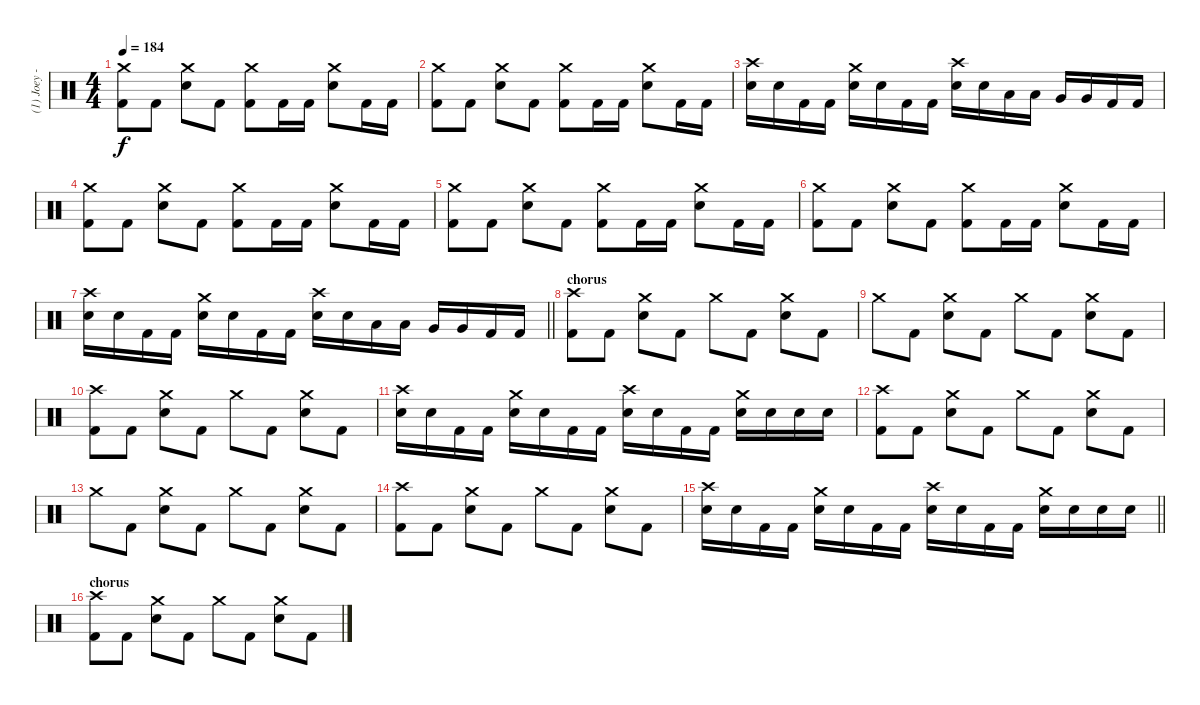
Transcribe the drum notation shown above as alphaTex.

\track ("(1) Joey - drums" "(1) Joey -") {instrument percussion}
\staff {score}
\articulation defaults
\ts (4 4)
\tempo 184
\clef neutral
\ks c
("Crash medium (hit)" "Kick (hit) 2").8{dy f} "Kick (hit) 2".8 ("Crash medium (hit)" "Electric Snare (hit)").8 "Kick (hit) 2".8 ("Crash medium (hit)" "Kick (hit) 2").8 "Kick (hit) 2".16 "Kick (hit) 2".16 ("Crash medium (hit)" "Electric Snare (hit)").8 "Kick (hit) 2".16 "Kick (hit) 2".16 |
("Crash medium (hit)" "Kick (hit) 2").8 "Kick (hit) 2".8 ("Crash medium (hit)" "Electric Snare (hit)").8 "Kick (hit) 2".8 ("Crash medium (hit)" "Kick (hit) 2").8 "Kick (hit) 2".16 "Kick (hit) 2".16 ("Crash medium (hit)" "Electric Snare (hit)").8 "Kick (hit) 2".16 "Kick (hit) 2".16 |
("Crash high (hit)" "Electric Snare (hit)").16 "Electric Snare (hit)".16 "Kick (hit) 2".16 "Kick (hit) 2".16 ("Crash medium (hit)" "Electric Snare (hit)").16 "Electric Snare (hit)".16 "Kick (hit) 2".16 "Kick (hit) 2".16 ("Crash high (hit)" "Electric Snare (hit)").16 "Electric Snare (hit)".16 "Low Tom (hit)".16 "Low Tom (hit)".16 "Very Low Tom (hit)".16 "Very Low Tom (hit)".16 "Kick (hit) 2".16 "Kick (hit) 2".16 |
("Crash medium (hit)" "Kick (hit) 2").8 "Kick (hit) 2".8 ("Crash medium (hit)" "Electric Snare (hit)").8 "Kick (hit) 2".8 ("Crash medium (hit)" "Kick (hit) 2").8 "Kick (hit) 2".16 "Kick (hit) 2".16 ("Crash medium (hit)" "Electric Snare (hit)").8 "Kick (hit) 2".16 "Kick (hit) 2".16 |
("Crash medium (hit)" "Kick (hit) 2").8 "Kick (hit) 2".8 ("Crash medium (hit)" "Electric Snare (hit)").8 "Kick (hit) 2".8 ("Crash medium (hit)" "Kick (hit) 2").8 "Kick (hit) 2".16 "Kick (hit) 2".16 ("Crash medium (hit)" "Electric Snare (hit)").8 "Kick (hit) 2".16 "Kick (hit) 2".16 |
("Crash medium (hit)" "Kick (hit) 2").8 "Kick (hit) 2".8 ("Crash medium (hit)" "Electric Snare (hit)").8 "Kick (hit) 2".8 ("Crash medium (hit)" "Kick (hit) 2").8 "Kick (hit) 2".16 "Kick (hit) 2".16 ("Crash medium (hit)" "Electric Snare (hit)").8 "Kick (hit) 2".16 "Kick (hit) 2".16 |
\barLineRight lightlight
("Crash high (hit)" "Electric Snare (hit)").16 "Electric Snare (hit)".16 "Kick (hit) 2".16 "Kick (hit) 2".16 ("Crash medium (hit)" "Electric Snare (hit)").16 "Electric Snare (hit)".16 "Kick (hit) 2".16 "Kick (hit) 2".16 ("Crash high (hit)" "Electric Snare (hit)").16 "Electric Snare (hit)".16 "Low Tom (hit)".16 "Low Tom (hit)".16 "Very Low Tom (hit)".16 "Very Low Tom (hit)".16 "Kick (hit) 2".16 "Kick (hit) 2".16 |
\section ("" "chorus")
("Crash high (hit)" "Kick (hit) 2").8 "Kick (hit) 2".8 ("Crash medium (hit)" "Electric Snare (hit)").8 "Kick (hit) 2".8 "Crash medium (hit)".8 "Kick (hit) 2".8 ("Crash medium (hit)" "Electric Snare (hit)").8 "Kick (hit) 2".8 |
"Crash medium (hit)".8 "Kick (hit) 2".8 ("Crash medium (hit)" "Electric Snare (hit)").8 "Kick (hit) 2".8 "Crash medium (hit)".8 "Kick (hit) 2".8 ("Crash medium (hit)" "Electric Snare (hit)").8 "Kick (hit) 2".8 |
("Crash high (hit)" "Kick (hit) 2").8 "Kick (hit) 2".8 ("Crash medium (hit)" "Electric Snare (hit)").8 "Kick (hit) 2".8 "Crash medium (hit)".8 "Kick (hit) 2".8 ("Crash medium (hit)" "Electric Snare (hit)").8 "Kick (hit) 2".8 |
("Crash high (hit)" "Electric Snare (hit)").16 "Electric Snare (hit)".16 "Kick (hit) 2".16 "Kick (hit) 2".16 ("Crash medium (hit)" "Electric Snare (hit)").16 "Electric Snare (hit)".16 "Kick (hit) 2".16 "Kick (hit) 2".16 ("Crash high (hit)" "Electric Snare (hit)").16 "Electric Snare (hit)".16 "Kick (hit) 2".16 "Kick (hit) 2".16 ("Crash medium (hit)" "Electric Snare (hit)").16 "Electric Snare (hit)".16 "Electric Snare (hit)".16 "Electric Snare (hit)".16 |
("Crash high (hit)" "Kick (hit) 2").8 "Kick (hit) 2".8 ("Crash medium (hit)" "Electric Snare (hit)").8 "Kick (hit) 2".8 "Crash medium (hit)".8 "Kick (hit) 2".8 ("Crash medium (hit)" "Electric Snare (hit)").8 "Kick (hit) 2".8 |
"Crash medium (hit)".8 "Kick (hit) 2".8 ("Crash medium (hit)" "Electric Snare (hit)").8 "Kick (hit) 2".8 "Crash medium (hit)".8 "Kick (hit) 2".8 ("Crash medium (hit)" "Electric Snare (hit)").8 "Kick (hit) 2".8 |
("Crash high (hit)" "Kick (hit) 2").8 "Kick (hit) 2".8 ("Crash medium (hit)" "Electric Snare (hit)").8 "Kick (hit) 2".8 "Crash medium (hit)".8 "Kick (hit) 2".8 ("Crash medium (hit)" "Electric Snare (hit)").8 "Kick (hit) 2".8 |
\barLineRight lightlight
("Crash high (hit)" "Electric Snare (hit)").16 "Electric Snare (hit)".16 "Kick (hit) 2".16 "Kick (hit) 2".16 ("Crash medium (hit)" "Electric Snare (hit)").16 "Electric Snare (hit)".16 "Kick (hit) 2".16 "Kick (hit) 2".16 ("Crash high (hit)" "Electric Snare (hit)").16 "Electric Snare (hit)".16 "Kick (hit) 2".16 "Kick (hit) 2".16 ("Crash medium (hit)" "Electric Snare (hit)").16 "Electric Snare (hit)".16 "Electric Snare (hit)".16 "Electric Snare (hit)".16 |
\section ("" "chorus")
("Crash high (hit)" "Kick (hit) 2").8 "Kick (hit) 2".8 ("Crash medium (hit)" "Electric Snare (hit)").8 "Kick (hit) 2".8 "Crash medium (hit)".8 "Kick (hit) 2".8 ("Crash medium (hit)" "Electric Snare (hit)").8 "Kick (hit) 2".8
